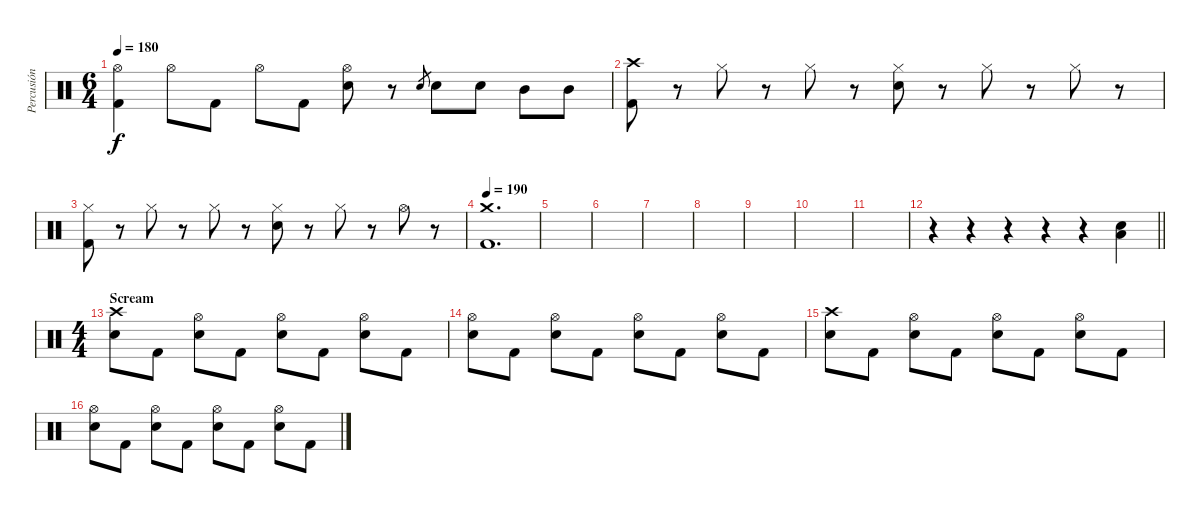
\track ("Percusión" "Percusión") {instrument percussion}
\staff {score}
\articulation defaults
\ts (6 4)
\tempo 180
\clef neutral
\ks c
("Hi-Hat (open)" "Kick (hit) 2").4{dy f} "Hi-Hat (open)".8 "Kick (hit) 2".8 "Hi-Hat (open)".8 "Kick (hit) 2".8 ("Hi-Hat (open)" "Electric Snare (hit)").8 r.8 "Electric Snare (hit)".8{gr} "Electric Snare (hit)".8 "Electric Snare (hit)".8 "Mid Tom (hit)".8 "Mid Tom (hit)".8 |
("Crash high (hit)" "Kick (hit) 2").8 r.8 "Hi-Hat (closed)".8 r.8 "Hi-Hat (closed)".8 r.8 ("Hi-Hat (closed)" "Electric Snare (hit)").8 r.8 "Hi-Hat (closed)".8 r.8 "Hi-Hat (closed)".8 r.8 |
("Hi-Hat (closed)" "Kick (hit) 2").8 r.8 "Hi-Hat (closed)".8 r.8 "Hi-Hat (closed)".8 r.8 ("Hi-Hat (closed)" "Electric Snare (hit)").8 r.8 "Hi-Hat (closed)".8 r.8 "Hi-Hat (open)".8 r.8 |
\tempo 190
("Crash medium (hit)" "Kick (hit) 2").1{d} |
|
|
|
|
|
|
|
\barLineRight lightlight
r.4 r.4 r.4 r.4 r.4 ("Electric Snare (hit)" "Low Floor Tom (hit)").4 |
\ts (4 4)
\section ("" "Scream")
("Crash high (hit)" "Electric Snare (hit)").8 "Kick (hit) 2".8 ("Hi-Hat (open)" "Electric Snare (hit)").8 "Kick (hit) 2".8 ("Hi-Hat (open)" "Electric Snare (hit)").8 "Kick (hit) 2".8 ("Hi-Hat (open)" "Electric Snare (hit)").8 "Kick (hit) 2".8 |
("Hi-Hat (open)" "Electric Snare (hit)").8 "Kick (hit) 2".8 ("Hi-Hat (open)" "Electric Snare (hit)").8 "Kick (hit) 2".8 ("Hi-Hat (open)" "Electric Snare (hit)").8 "Kick (hit) 2".8 ("Hi-Hat (open)" "Electric Snare (hit)").8 "Kick (hit) 2".8 |
("Crash high (hit)" "Electric Snare (hit)").8 "Kick (hit) 2".8 ("Hi-Hat (open)" "Electric Snare (hit)").8 "Kick (hit) 2".8 ("Hi-Hat (open)" "Electric Snare (hit)").8 "Kick (hit) 2".8 ("Hi-Hat (open)" "Electric Snare (hit)").8 "Kick (hit) 2".8 |
("Hi-Hat (open)" "Electric Snare (hit)").8 "Kick (hit) 2".8 ("Hi-Hat (open)" "Electric Snare (hit)").8 "Kick (hit) 2".8 ("Hi-Hat (open)" "Electric Snare (hit)").8 "Kick (hit) 2".8 ("Hi-Hat (open)" "Electric Snare (hit)").8 "Kick (hit) 2".8
